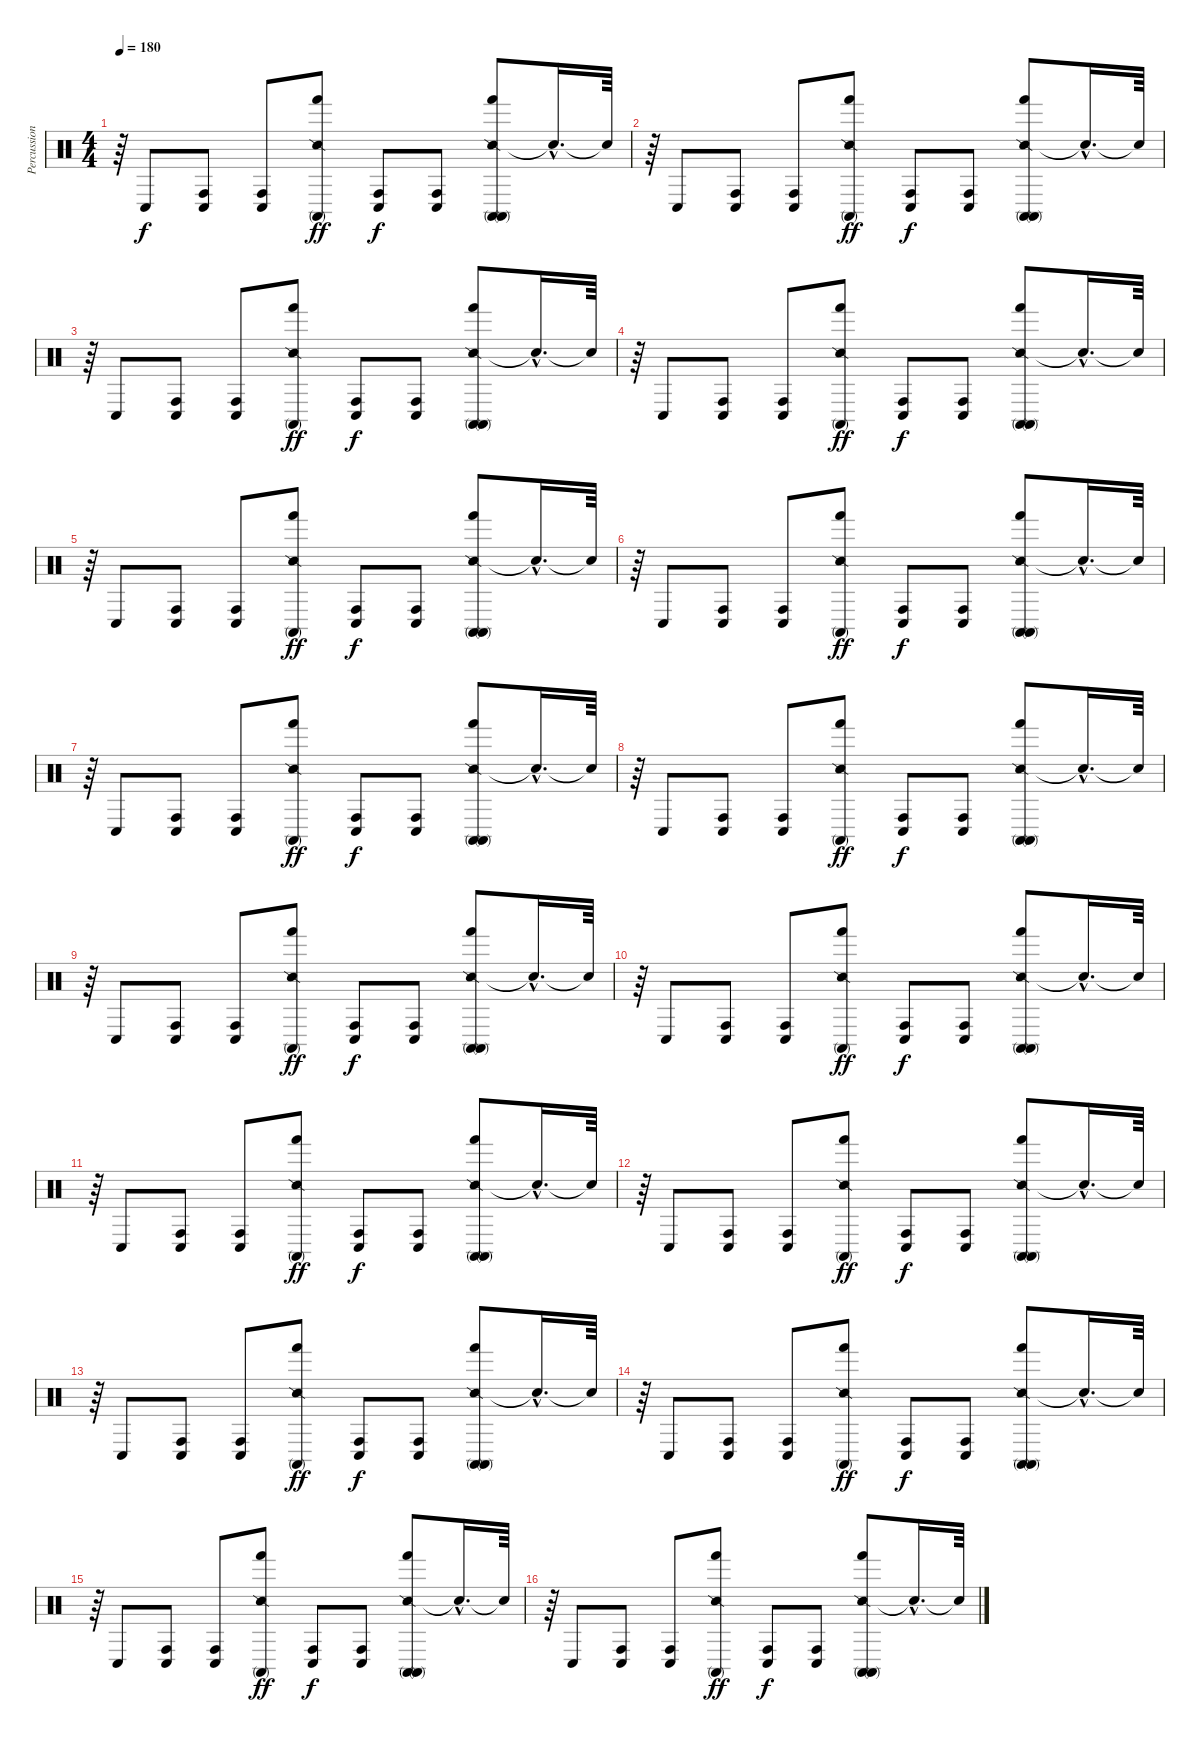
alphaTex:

\track ("Percussion" "Percussion") {instrument percussion}
\staff {score}
\articulation defaults
\ts (4 4)
\tempo 180
\clef neutral
\ks c
r.64{dy f} "Conga low (hit)".8 ("Conga high (hit)" "Conga low (hit)").8 ("Conga high (hit)" "Conga low (hit)").8 ("Snare (side stick) 2" "Hand (hit)" "Conga high (mute)").8{dy ff} ("Conga high (hit)" "Conga low (hit)").8{dy f} ("Conga high (hit)" "Conga low (hit)").8 ("Snare (side stick) 2" "Hand (hit)" "Conga high (mute)" "Conga high (mute)").8 "Snare (hit)"{hac t}.16{d} "Snare (hit)"{t}.64 |
r.64 "Conga low (hit)".8 ("Conga high (hit)" "Conga low (hit)").8 ("Conga high (hit)" "Conga low (hit)").8 ("Snare (side stick) 2" "Hand (hit)" "Conga high (mute)").8{dy ff} ("Conga high (hit)" "Conga low (hit)").8{dy f} ("Conga high (hit)" "Conga low (hit)").8 ("Snare (side stick) 2" "Hand (hit)" "Conga high (mute)" "Conga high (mute)").8 "Snare (hit)"{hac t}.16{d} "Snare (hit)"{t}.64 |
r.64 "Conga low (hit)".8 ("Conga high (hit)" "Conga low (hit)").8 ("Conga high (hit)" "Conga low (hit)").8 ("Snare (side stick) 2" "Hand (hit)" "Conga high (mute)").8{dy ff} ("Conga high (hit)" "Conga low (hit)").8{dy f} ("Conga high (hit)" "Conga low (hit)").8 ("Snare (side stick) 2" "Hand (hit)" "Conga high (mute)" "Conga high (mute)").8 "Snare (hit)"{hac t}.16{d} "Snare (hit)"{t}.64 |
r.64 "Conga low (hit)".8 ("Conga high (hit)" "Conga low (hit)").8 ("Conga high (hit)" "Conga low (hit)").8 ("Snare (side stick) 2" "Hand (hit)" "Conga high (mute)").8{dy ff} ("Conga high (hit)" "Conga low (hit)").8{dy f} ("Conga high (hit)" "Conga low (hit)").8 ("Snare (side stick) 2" "Hand (hit)" "Conga high (mute)" "Conga high (mute)").8 "Snare (hit)"{hac t}.16{d} "Snare (hit)"{t}.64 |
r.64 "Conga low (hit)".8 ("Conga high (hit)" "Conga low (hit)").8 ("Conga high (hit)" "Conga low (hit)").8 ("Snare (side stick) 2" "Hand (hit)" "Conga high (mute)").8{dy ff} ("Conga high (hit)" "Conga low (hit)").8{dy f} ("Conga high (hit)" "Conga low (hit)").8 ("Snare (side stick) 2" "Hand (hit)" "Conga high (mute)" "Conga high (mute)").8 "Snare (hit)"{hac t}.16{d} "Snare (hit)"{t}.64 |
r.64 "Conga low (hit)".8 ("Conga high (hit)" "Conga low (hit)").8 ("Conga high (hit)" "Conga low (hit)").8 ("Snare (side stick) 2" "Hand (hit)" "Conga high (mute)").8{dy ff} ("Conga high (hit)" "Conga low (hit)").8{dy f} ("Conga high (hit)" "Conga low (hit)").8 ("Snare (side stick) 2" "Hand (hit)" "Conga high (mute)" "Conga high (mute)").8 "Snare (hit)"{hac t}.16{d} "Snare (hit)"{t}.64 |
r.64 "Conga low (hit)".8 ("Conga high (hit)" "Conga low (hit)").8 ("Conga high (hit)" "Conga low (hit)").8 ("Snare (side stick) 2" "Hand (hit)" "Conga high (mute)").8{dy ff} ("Conga high (hit)" "Conga low (hit)").8{dy f} ("Conga high (hit)" "Conga low (hit)").8 ("Snare (side stick) 2" "Hand (hit)" "Conga high (mute)" "Conga high (mute)").8 "Snare (hit)"{hac t}.16{d} "Snare (hit)"{t}.64 |
r.64 "Conga low (hit)".8 ("Conga high (hit)" "Conga low (hit)").8 ("Conga high (hit)" "Conga low (hit)").8 ("Snare (side stick) 2" "Hand (hit)" "Conga high (mute)").8{dy ff} ("Conga high (hit)" "Conga low (hit)").8{dy f} ("Conga high (hit)" "Conga low (hit)").8 ("Snare (side stick) 2" "Hand (hit)" "Conga high (mute)" "Conga high (mute)").8 "Snare (hit)"{hac t}.16{d} "Snare (hit)"{t}.64 |
r.64 "Conga low (hit)".8 ("Conga high (hit)" "Conga low (hit)").8 ("Conga high (hit)" "Conga low (hit)").8 ("Snare (side stick) 2" "Hand (hit)" "Conga high (mute)").8{dy ff} ("Conga high (hit)" "Conga low (hit)").8{dy f} ("Conga high (hit)" "Conga low (hit)").8 ("Snare (side stick) 2" "Hand (hit)" "Conga high (mute)" "Conga high (mute)").8 "Snare (hit)"{hac t}.16{d} "Snare (hit)"{t}.64 |
r.64 "Conga low (hit)".8 ("Conga high (hit)" "Conga low (hit)").8 ("Conga high (hit)" "Conga low (hit)").8 ("Snare (side stick) 2" "Hand (hit)" "Conga high (mute)").8{dy ff} ("Conga high (hit)" "Conga low (hit)").8{dy f} ("Conga high (hit)" "Conga low (hit)").8 ("Snare (side stick) 2" "Hand (hit)" "Conga high (mute)" "Conga high (mute)").8 "Snare (hit)"{hac t}.16{d} "Snare (hit)"{t}.64 |
r.64 "Conga low (hit)".8 ("Conga high (hit)" "Conga low (hit)").8 ("Conga high (hit)" "Conga low (hit)").8 ("Snare (side stick) 2" "Hand (hit)" "Conga high (mute)").8{dy ff} ("Conga high (hit)" "Conga low (hit)").8{dy f} ("Conga high (hit)" "Conga low (hit)").8 ("Snare (side stick) 2" "Hand (hit)" "Conga high (mute)" "Conga high (mute)").8 "Snare (hit)"{hac t}.16{d} "Snare (hit)"{t}.64 |
r.64 "Conga low (hit)".8 ("Conga high (hit)" "Conga low (hit)").8 ("Conga high (hit)" "Conga low (hit)").8 ("Snare (side stick) 2" "Hand (hit)" "Conga high (mute)").8{dy ff} ("Conga high (hit)" "Conga low (hit)").8{dy f} ("Conga high (hit)" "Conga low (hit)").8 ("Snare (side stick) 2" "Hand (hit)" "Conga high (mute)" "Conga high (mute)").8 "Snare (hit)"{hac t}.16{d} "Snare (hit)"{t}.64 |
r.64 "Conga low (hit)".8 ("Conga high (hit)" "Conga low (hit)").8 ("Conga high (hit)" "Conga low (hit)").8 ("Snare (side stick) 2" "Hand (hit)" "Conga high (mute)").8{dy ff} ("Conga high (hit)" "Conga low (hit)").8{dy f} ("Conga high (hit)" "Conga low (hit)").8 ("Snare (side stick) 2" "Hand (hit)" "Conga high (mute)" "Conga high (mute)").8 "Snare (hit)"{hac t}.16{d} "Snare (hit)"{t}.64 |
r.64 "Conga low (hit)".8 ("Conga high (hit)" "Conga low (hit)").8 ("Conga high (hit)" "Conga low (hit)").8 ("Snare (side stick) 2" "Hand (hit)" "Conga high (mute)").8{dy ff} ("Conga high (hit)" "Conga low (hit)").8{dy f} ("Conga high (hit)" "Conga low (hit)").8 ("Snare (side stick) 2" "Hand (hit)" "Conga high (mute)" "Conga high (mute)").8 "Snare (hit)"{hac t}.16{d} "Snare (hit)"{t}.64 |
r.64 "Conga low (hit)".8 ("Conga high (hit)" "Conga low (hit)").8 ("Conga high (hit)" "Conga low (hit)").8 ("Snare (side stick) 2" "Hand (hit)" "Conga high (mute)").8{dy ff} ("Conga high (hit)" "Conga low (hit)").8{dy f} ("Conga high (hit)" "Conga low (hit)").8 ("Snare (side stick) 2" "Hand (hit)" "Conga high (mute)" "Conga high (mute)").8 "Snare (hit)"{hac t}.16{d} "Snare (hit)"{t}.64 |
r.64 "Conga low (hit)".8 ("Conga high (hit)" "Conga low (hit)").8 ("Conga high (hit)" "Conga low (hit)").8 ("Snare (side stick) 2" "Hand (hit)" "Conga high (mute)").8{dy ff} ("Conga high (hit)" "Conga low (hit)").8{dy f} ("Conga high (hit)" "Conga low (hit)").8 ("Snare (side stick) 2" "Hand (hit)" "Conga high (mute)" "Conga high (mute)").8 "Snare (hit)"{hac t}.16{d} "Snare (hit)"{t}.64
